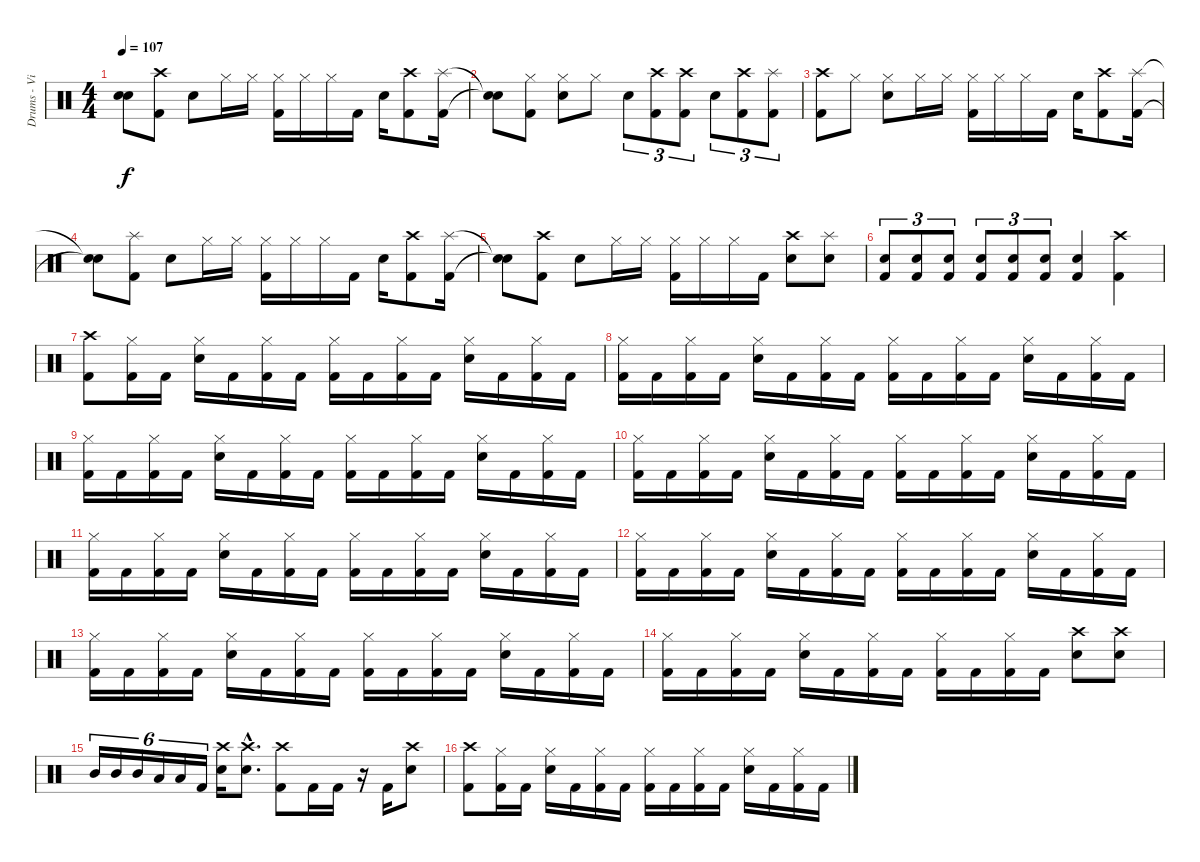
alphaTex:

\track ("Drums - Vinnie Paul" "Drums - Vi") {instrument percussion}
\staff {score}
\articulation defaults
\ts (4 4)
\tempo 107
\clef neutral
\ks c
("Snare (hit)"{t} "Snare (hit)"{t}).8{dy f} ("Crash high (hit)" "Kick (hit) 2").8 "Electric Snare (hit)".8 "Hi-Hat (closed)".16 "Hi-Hat (closed)".16 ("Hi-Hat (closed)" "Kick (hit) 2").16 "Hi-Hat (closed)".16 "Hi-Hat (closed)".16 "Kick (hit) 2".16 "Electric Snare (hit)".16 ("Crash high (hit)" "Kick (hit) 2").8 ("Splash (hit)" "Kick (hit) 2").16 |
("Snare (hit)"{t} "Snare (hit)"{t}).8 ("Hi-Hat (closed)" "Kick (hit) 2").8 ("Hi-Hat (closed)" "Electric Snare (hit)").8 "Hi-Hat (closed)".8 "Electric Snare (hit)".8{tu (3 2)} ("Crash high (hit)" "Kick (hit) 2").8{tu (3 2)} ("Crash high (hit)" "Kick (hit) 2").8{tu (3 2)} "Electric Snare (hit)".8{tu (3 2)} ("Crash high (hit)" "Kick (hit) 2").8{tu (3 2)} ("Splash (hit)" "Kick (hit) 2").8{tu (3 2)} |
("Crash high (hit)" "Kick (hit) 2").8 "Hi-Hat (closed)".8 ("Hi-Hat (closed)" "Electric Snare (hit)").8 "Hi-Hat (closed)".16 "Hi-Hat (closed)".16 ("Hi-Hat (closed)" "Kick (hit) 2").16 "Hi-Hat (closed)".16 "Hi-Hat (closed)".16 "Kick (hit) 2".16 "Electric Snare (hit)".16 ("Crash high (hit)" "Kick (hit) 2").8 ("Splash (hit)" "Kick (hit) 2").16 |
("Snare (hit)"{t} "Snare (hit)"{t}).8 ("Splash (hit)" "Kick (hit) 2").8 "Electric Snare (hit)".8 "Hi-Hat (closed)".16 "Hi-Hat (closed)".16 ("Hi-Hat (closed)" "Kick (hit) 2").16 "Hi-Hat (closed)".16 "Hi-Hat (closed)".16 "Kick (hit) 2".16 "Electric Snare (hit)".16 ("Crash high (hit)" "Kick (hit) 2").8 ("Splash (hit)" "Kick (hit) 2").16 |
("Snare (hit)"{t} "Snare (hit)"{t}).8 ("Crash high (hit)" "Kick (hit) 2").8 "Electric Snare (hit)".8 "Hi-Hat (closed)".16 "Hi-Hat (closed)".16 ("Hi-Hat (closed)" "Kick (hit) 2").16 "Hi-Hat (closed)".16 "Hi-Hat (closed)".16 "Kick (hit) 2".16 ("Crash high (hit)" "Electric Snare (hit)").8 ("Splash (hit)" "Electric Snare (hit)").8 |
("Electric Snare (hit)" "Kick (hit) 2").8{tu (3 2)} ("Electric Snare (hit)" "Kick (hit) 2").8{tu (3 2)} ("Electric Snare (hit)" "Kick (hit) 2").8{tu (3 2)} ("Electric Snare (hit)" "Kick (hit) 2").8{tu (3 2)} ("Electric Snare (hit)" "Kick (hit) 2").8{tu (3 2)} ("Electric Snare (hit)" "Kick (hit) 2").8{tu (3 2)} ("Electric Snare (hit)" "Kick (hit) 2").4 ("Crash high (hit)" "Kick (hit) 2").4 |
("Crash high (hit)" "Kick (hit) 2").8 ("Hi-Hat (closed)" "Kick (hit) 2").16 "Kick (hit) 2".16 ("Hi-Hat (closed)" "Electric Snare (hit)").16 "Kick (hit) 2".16 ("Hi-Hat (closed)" "Kick (hit) 2").16 "Kick (hit) 2".16 ("Hi-Hat (closed)" "Kick (hit) 2").16 "Kick (hit) 2".16 ("Hi-Hat (closed)" "Kick (hit) 2").16 "Kick (hit) 2".16 ("Hi-Hat (closed)" "Electric Snare (hit)").16 "Kick (hit) 2".16 ("Hi-Hat (closed)" "Kick (hit) 2").16 "Kick (hit) 2".16 |
("Hi-Hat (closed)" "Kick (hit) 2").16 "Kick (hit) 2".16 ("Hi-Hat (closed)" "Kick (hit) 2").16 "Kick (hit) 2".16 ("Hi-Hat (closed)" "Electric Snare (hit)").16 "Kick (hit) 2".16 ("Hi-Hat (closed)" "Kick (hit) 2").16 "Kick (hit) 2".16 ("Hi-Hat (closed)" "Kick (hit) 2").16 "Kick (hit) 2".16 ("Hi-Hat (closed)" "Kick (hit) 2").16 "Kick (hit) 2".16 ("Hi-Hat (closed)" "Electric Snare (hit)").16 "Kick (hit) 2".16 ("Hi-Hat (closed)" "Kick (hit) 2").16 "Kick (hit) 2".16 |
("Hi-Hat (closed)" "Kick (hit) 2").16 "Kick (hit) 2".16 ("Hi-Hat (closed)" "Kick (hit) 2").16 "Kick (hit) 2".16 ("Hi-Hat (closed)" "Electric Snare (hit)").16 "Kick (hit) 2".16 ("Hi-Hat (closed)" "Kick (hit) 2").16 "Kick (hit) 2".16 ("Hi-Hat (closed)" "Kick (hit) 2").16 "Kick (hit) 2".16 ("Hi-Hat (closed)" "Kick (hit) 2").16 "Kick (hit) 2".16 ("Hi-Hat (closed)" "Electric Snare (hit)").16 "Kick (hit) 2".16 ("Hi-Hat (closed)" "Kick (hit) 2").16 "Kick (hit) 2".16 |
("Hi-Hat (closed)" "Kick (hit) 2").16 "Kick (hit) 2".16 ("Hi-Hat (closed)" "Kick (hit) 2").16 "Kick (hit) 2".16 ("Hi-Hat (closed)" "Electric Snare (hit)").16 "Kick (hit) 2".16 ("Hi-Hat (closed)" "Kick (hit) 2").16 "Kick (hit) 2".16 ("Hi-Hat (closed)" "Kick (hit) 2").16 "Kick (hit) 2".16 ("Hi-Hat (closed)" "Kick (hit) 2").16 "Kick (hit) 2".16 ("Hi-Hat (closed)" "Electric Snare (hit)").16 "Kick (hit) 2".16 ("Hi-Hat (closed)" "Kick (hit) 2").16 "Kick (hit) 2".16 |
("Hi-Hat (closed)" "Kick (hit) 2").16 "Kick (hit) 2".16 ("Hi-Hat (closed)" "Kick (hit) 2").16 "Kick (hit) 2".16 ("Hi-Hat (closed)" "Electric Snare (hit)").16 "Kick (hit) 2".16 ("Hi-Hat (closed)" "Kick (hit) 2").16 "Kick (hit) 2".16 ("Hi-Hat (closed)" "Kick (hit) 2").16 "Kick (hit) 2".16 ("Hi-Hat (closed)" "Kick (hit) 2").16 "Kick (hit) 2".16 ("Hi-Hat (closed)" "Electric Snare (hit)").16 "Kick (hit) 2".16 ("Hi-Hat (closed)" "Kick (hit) 2").16 "Kick (hit) 2".16 |
("Hi-Hat (closed)" "Kick (hit) 2").16 "Kick (hit) 2".16 ("Hi-Hat (closed)" "Kick (hit) 2").16 "Kick (hit) 2".16 ("Hi-Hat (closed)" "Electric Snare (hit)").16 "Kick (hit) 2".16 ("Hi-Hat (closed)" "Kick (hit) 2").16 "Kick (hit) 2".16 ("Hi-Hat (closed)" "Kick (hit) 2").16 "Kick (hit) 2".16 ("Hi-Hat (closed)" "Kick (hit) 2").16 "Kick (hit) 2".16 ("Hi-Hat (closed)" "Electric Snare (hit)").16 "Kick (hit) 2".16 ("Hi-Hat (closed)" "Kick (hit) 2").16 "Kick (hit) 2".16 |
("Hi-Hat (closed)" "Kick (hit) 2").16 "Kick (hit) 2".16 ("Hi-Hat (closed)" "Kick (hit) 2").16 "Kick (hit) 2".16 ("Hi-Hat (closed)" "Electric Snare (hit)").16 "Kick (hit) 2".16 ("Hi-Hat (closed)" "Kick (hit) 2").16 "Kick (hit) 2".16 ("Hi-Hat (closed)" "Kick (hit) 2").16 "Kick (hit) 2".16 ("Hi-Hat (closed)" "Kick (hit) 2").16 "Kick (hit) 2".16 ("Hi-Hat (closed)" "Electric Snare (hit)").16 "Kick (hit) 2".16 ("Hi-Hat (closed)" "Kick (hit) 2").16 "Kick (hit) 2".16 |
("Hi-Hat (closed)" "Kick (hit) 2").16 "Kick (hit) 2".16 ("Hi-Hat (closed)" "Kick (hit) 2").16 "Kick (hit) 2".16 ("Hi-Hat (closed)" "Electric Snare (hit)").16 "Kick (hit) 2".16 ("Hi-Hat (closed)" "Kick (hit) 2").16 "Kick (hit) 2".16 ("Hi-Hat (closed)" "Kick (hit) 2").16 "Kick (hit) 2".16 ("Hi-Hat (closed)" "Kick (hit) 2").16 "Kick (hit) 2".16 ("Crash high (hit)" "Electric Snare (hit)").8 ("Crash high (hit)" "Electric Snare (hit)").8 |
"Mid Tom (hit)".16{tu (6 4)} "Mid Tom (hit)".16{tu (6 4)} "Mid Tom (hit)".16{tu (6 4)} "Low Tom (hit)".16{tu (6 4)} "Low Tom (hit)".16{tu (6 4)} "Kick (hit) 2".16{tu (6 4)} ("Crash high (hit)" "Electric Snare (hit)").16 ("Crash high (hit)"{hac} "Electric Snare (hit)"{hac}).8{d} ("Crash high (hit)" "Kick (hit) 2").8 "Kick (hit) 2".16 "Kick (hit) 2".16 r.16 "Kick (hit) 2".16 ("Crash high (hit)" "Electric Snare (hit)").8 |
("Crash high (hit)" "Kick (hit) 2").8 ("Hi-Hat (closed)" "Kick (hit) 2").16 "Kick (hit) 2".16 ("Hi-Hat (closed)" "Electric Snare (hit)").16 "Kick (hit) 2".16 ("Hi-Hat (closed)" "Kick (hit) 2").16 "Kick (hit) 2".16 ("Hi-Hat (closed)" "Kick (hit) 2").16 "Kick (hit) 2".16 ("Hi-Hat (closed)" "Kick (hit) 2").16 "Kick (hit) 2".16 ("Hi-Hat (closed)" "Electric Snare (hit)").16 "Kick (hit) 2".16 ("Hi-Hat (closed)" "Kick (hit) 2").16 "Kick (hit) 2".16
